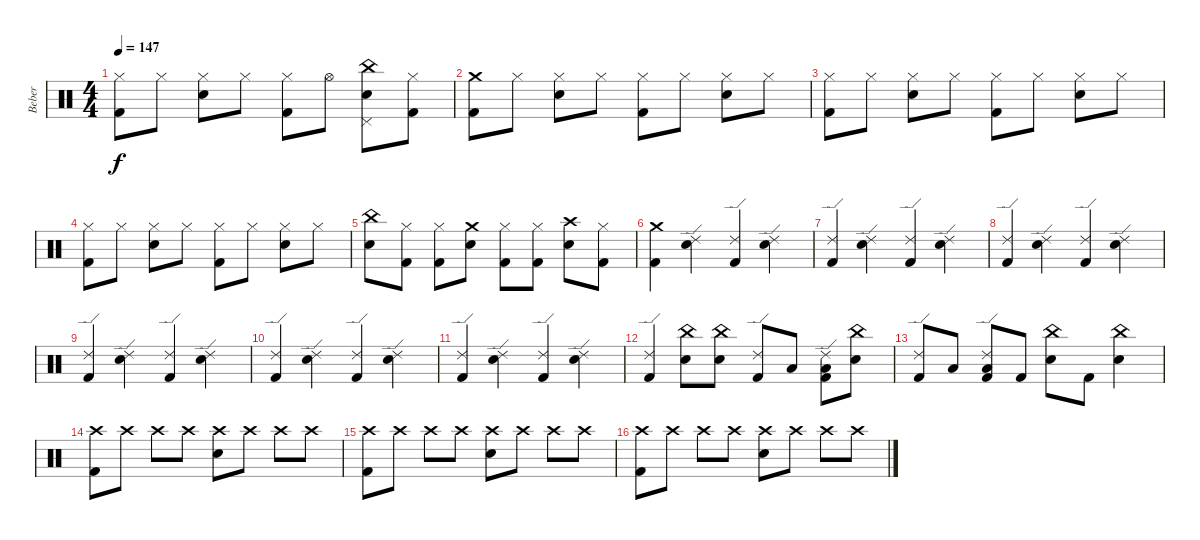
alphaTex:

\track ("Beber" "Beber") {instrument percussion}
\staff {score}
\articulation defaults
\ts (4 4)
\tempo 147
\clef neutral
\ks c
("Hi-Hat (closed)" "Kick (hit) 2").8{dy f} "Hi-Hat (closed)".8 ("Hi-Hat (closed)" "Snare (hit) 2").8 "Hi-Hat (closed)".8 ("Hi-Hat (closed)" "Kick (hit) 2").8 "Hi-Hat (open)".8 ("China (hit)" "Snare (hit) 2" "Pedal Hi-Hat (hit)").8 ("Hi-Hat (closed)" "Kick (hit) 2").8 |
("Crash medium (hit)" "Kick (hit) 2").8 "Hi-Hat (closed)".8 ("Hi-Hat (closed)" "Snare (hit) 2").8 "Hi-Hat (closed)".8 ("Hi-Hat (closed)" "Kick (hit) 2").8 "Hi-Hat (closed)".8 ("Hi-Hat (closed)" "Snare (hit) 2").8 "Hi-Hat (closed)".8 |
("Hi-Hat (closed)" "Kick (hit) 2").8 "Hi-Hat (closed)".8 ("Hi-Hat (closed)" "Snare (hit) 2").8 "Hi-Hat (closed)".8 ("Hi-Hat (closed)" "Kick (hit) 2").8 "Hi-Hat (closed)".8 ("Hi-Hat (closed)" "Snare (hit) 2").8 "Hi-Hat (closed)".8 |
("Hi-Hat (closed)" "Kick (hit) 2").8 "Hi-Hat (closed)".8 ("Hi-Hat (closed)" "Snare (hit) 2").8 "Hi-Hat (closed)".8 ("Hi-Hat (closed)" "Kick (hit) 2").8 "Hi-Hat (closed)".8 ("Hi-Hat (closed)" "Snare (hit) 2").8 "Hi-Hat (closed)".8 |
("China (hit)" "Snare (hit) 2").8 ("Hi-Hat (closed)" "Kick (hit) 2").8 ("Hi-Hat (closed)" "Kick (hit) 2").8 ("Crash medium (hit)" "Snare (hit) 2").8 ("Hi-Hat (closed)" "Kick (hit) 2").8 ("Hi-Hat (closed)" "Kick (hit) 2").8 ("Crash high (hit)" "Snare (hit) 2").8 ("Hi-Hat (closed)" "Kick (hit) 2").8 |
("Crash medium (hit)" "Kick (hit) 2").4 ("Ride (edge) 2" "Snare (hit) 2").4 ("Ride (edge) 2" "Kick (hit) 2").4 ("Ride (edge) 2" "Snare (hit) 2").4 |
("Ride (edge) 2" "Kick (hit) 2").4 ("Ride (edge) 2" "Snare (hit) 2").4 ("Ride (edge) 2" "Kick (hit) 2").4 ("Ride (edge) 2" "Snare (hit) 2").4 |
("Ride (edge) 2" "Kick (hit) 2").4 ("Ride (edge) 2" "Snare (hit) 2").4 ("Ride (edge) 2" "Kick (hit) 2").4 ("Ride (edge) 2" "Snare (hit) 2").4 |
("Ride (edge) 2" "Kick (hit) 2").4 ("Ride (edge) 2" "Snare (hit) 2").4 ("Ride (edge) 2" "Kick (hit) 2").4 ("Ride (edge) 2" "Snare (hit) 2").4 |
("Ride (edge) 2" "Kick (hit) 2").4 ("Ride (edge) 2" "Snare (hit) 2").4 ("Ride (edge) 2" "Kick (hit) 2").4 ("Ride (edge) 2" "Snare (hit) 2").4 |
("Ride (edge) 2" "Kick (hit) 2").4 ("Ride (edge) 2" "Snare (hit) 2").4 ("Ride (edge) 2" "Kick (hit) 2").4 ("Ride (edge) 2" "Snare (hit) 2").4 |
("Ride (edge) 2" "Kick (hit) 2").4 ("China (hit)" "Snare (hit) 2").8 ("China (hit)" "Snare (hit) 2").8 ("Ride (edge) 2" "Kick (hit) 2").8 "Low Tom (hit)".8 ("Ride (edge) 2" "Low Floor Tom (hit)" "Kick (hit) 2").8 ("China (hit)" "Snare (hit) 2").8 |
("Ride (edge) 2" "Kick (hit) 2").8 "Low Floor Tom (hit)".8 ("Ride (edge) 2" "Low Floor Tom (hit)" "Kick (hit) 2").8 "Kick (hit) 2".8 ("China (hit)" "Snare (hit) 2").8 "Kick (hit) 2".8 ("China (hit)" "Snare (hit) 2").4 |
("Crash high (hit)" "Kick (hit) 2").8 "Crash high (hit)".8 "Crash high (hit)".8 "Crash high (hit)".8 ("Crash high (hit)" "Snare (hit) 2").8 "Crash high (hit)".8 "Crash high (hit)".8 "Crash high (hit)".8 |
("Crash high (hit)" "Kick (hit) 2").8 "Crash high (hit)".8 "Crash high (hit)".8 "Crash high (hit)".8 ("Crash high (hit)" "Snare (hit) 2").8 "Crash high (hit)".8 "Crash high (hit)".8 "Crash high (hit)".8 |
("Crash high (hit)" "Kick (hit) 2").8 "Crash high (hit)".8 "Crash high (hit)".8 "Crash high (hit)".8 ("Crash high (hit)" "Snare (hit) 2").8 "Crash high (hit)".8 "Crash high (hit)".8 "Crash high (hit)".8
